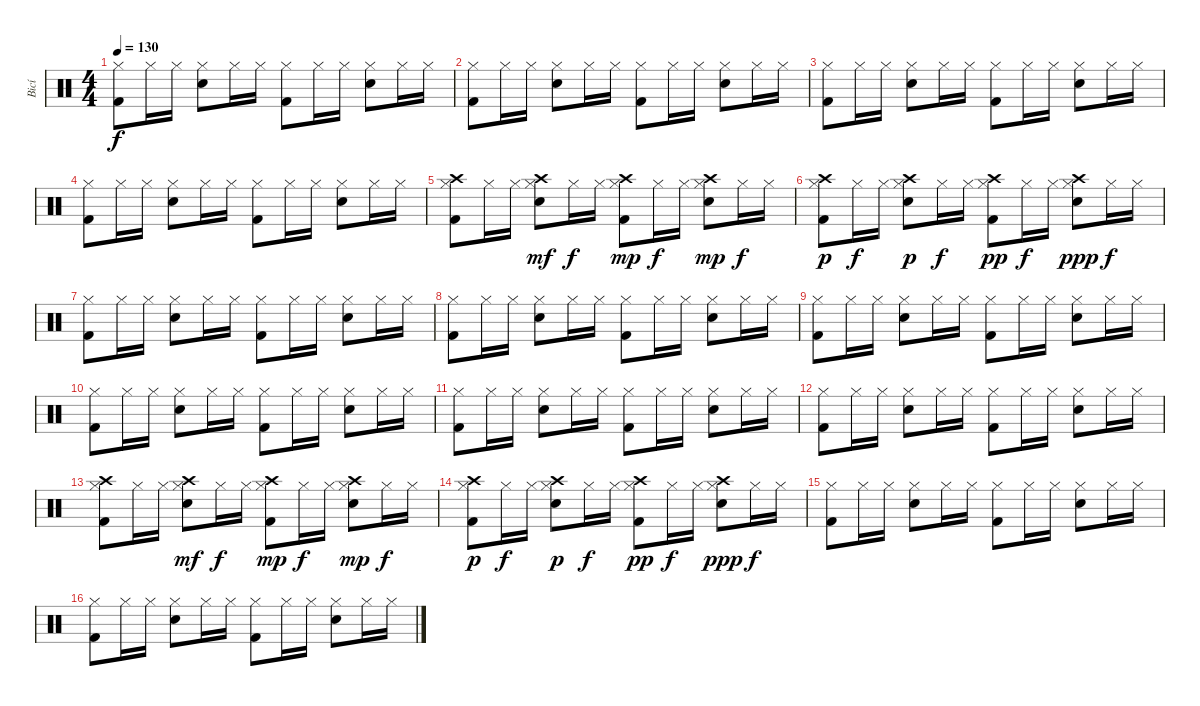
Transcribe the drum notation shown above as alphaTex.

\track ("Bicí" "Bicí") {instrument percussion}
\staff {score}
\articulation defaults
\ts (4 4)
\tempo 130
\clef neutral
\ks c
("Kick (hit) 2" "Hi-Hat (closed)").8{dy f} "Hi-Hat (closed)".16 "Hi-Hat (closed)".16 ("Hi-Hat (closed)" "Snare (hit) 2").8 "Hi-Hat (closed)".16 "Hi-Hat (closed)".16 ("Kick (hit) 2" "Hi-Hat (closed)").8 "Hi-Hat (closed)".16 "Hi-Hat (closed)".16 ("Hi-Hat (closed)" "Snare (hit) 2").8 "Hi-Hat (closed)".16 "Hi-Hat (closed)".16 |
("Kick (hit) 2" "Hi-Hat (closed)").8 "Hi-Hat (closed)".16 "Hi-Hat (closed)".16 ("Hi-Hat (closed)" "Snare (hit) 2").8 "Hi-Hat (closed)".16 "Hi-Hat (closed)".16 ("Kick (hit) 2" "Hi-Hat (closed)").8 "Hi-Hat (closed)".16 "Hi-Hat (closed)".16 ("Hi-Hat (closed)" "Snare (hit) 2").8 "Hi-Hat (closed)".16 "Hi-Hat (closed)".16 |
("Kick (hit) 2" "Hi-Hat (closed)").8 "Hi-Hat (closed)".16 "Hi-Hat (closed)".16 ("Hi-Hat (closed)" "Snare (hit) 2").8 "Hi-Hat (closed)".16 "Hi-Hat (closed)".16 ("Kick (hit) 2" "Hi-Hat (closed)").8 "Hi-Hat (closed)".16 "Hi-Hat (closed)".16 ("Hi-Hat (closed)" "Snare (hit) 2").8 "Hi-Hat (closed)".16 "Hi-Hat (closed)".16 |
("Kick (hit) 2" "Hi-Hat (closed)").8 "Hi-Hat (closed)".16 "Hi-Hat (closed)".16 ("Hi-Hat (closed)" "Snare (hit) 2").8 "Hi-Hat (closed)".16 "Hi-Hat (closed)".16 ("Kick (hit) 2" "Hi-Hat (closed)").8 "Hi-Hat (closed)".16 "Hi-Hat (closed)".16 ("Hi-Hat (closed)" "Snare (hit) 2").8 "Hi-Hat (closed)".16 "Hi-Hat (closed)".16 |
("Kick (hit) 2" "Hi-Hat (closed)" "Crash high (hit)").8 "Hi-Hat (closed)".16 "Hi-Hat (closed)".16 ("Hi-Hat (closed)" "Snare (hit) 2" "Crash high (hit)").8{dy mf} "Hi-Hat (closed)".16{dy f} "Hi-Hat (closed)".16 ("Kick (hit) 2" "Hi-Hat (closed)" "Crash high (hit)").8{dy mp} "Hi-Hat (closed)".16{dy f} "Hi-Hat (closed)".16 ("Hi-Hat (closed)" "Snare (hit) 2" "Crash high (hit)").8{dy mp} "Hi-Hat (closed)".16{dy f} "Hi-Hat (closed)".16 |
("Kick (hit) 2" "Hi-Hat (closed)" "Crash high (hit)").8{dy p} "Hi-Hat (closed)".16{dy f} "Hi-Hat (closed)".16 ("Hi-Hat (closed)" "Snare (hit) 2" "Crash high (hit)").8{dy p} "Hi-Hat (closed)".16{dy f} "Hi-Hat (closed)".16 ("Kick (hit) 2" "Hi-Hat (closed)" "Crash high (hit)").8{dy pp} "Hi-Hat (closed)".16{dy f} "Hi-Hat (closed)".16 ("Hi-Hat (closed)" "Snare (hit) 2" "Crash high (hit)").8{dy ppp} "Hi-Hat (closed)".16{dy f} "Hi-Hat (closed)".16 |
("Kick (hit) 2" "Hi-Hat (closed)").8 "Hi-Hat (closed)".16 "Hi-Hat (closed)".16 ("Hi-Hat (closed)" "Snare (hit) 2").8 "Hi-Hat (closed)".16 "Hi-Hat (closed)".16 ("Kick (hit) 2" "Hi-Hat (closed)").8 "Hi-Hat (closed)".16 "Hi-Hat (closed)".16 ("Hi-Hat (closed)" "Snare (hit) 2").8 "Hi-Hat (closed)".16 "Hi-Hat (closed)".16 |
("Kick (hit) 2" "Hi-Hat (closed)").8 "Hi-Hat (closed)".16 "Hi-Hat (closed)".16 ("Hi-Hat (closed)" "Snare (hit) 2").8 "Hi-Hat (closed)".16 "Hi-Hat (closed)".16 ("Kick (hit) 2" "Hi-Hat (closed)").8 "Hi-Hat (closed)".16 "Hi-Hat (closed)".16 ("Hi-Hat (closed)" "Snare (hit) 2").8 "Hi-Hat (closed)".16 "Hi-Hat (closed)".16 |
("Kick (hit) 2" "Hi-Hat (closed)").8 "Hi-Hat (closed)".16 "Hi-Hat (closed)".16 ("Hi-Hat (closed)" "Snare (hit) 2").8 "Hi-Hat (closed)".16 "Hi-Hat (closed)".16 ("Kick (hit) 2" "Hi-Hat (closed)").8 "Hi-Hat (closed)".16 "Hi-Hat (closed)".16 ("Hi-Hat (closed)" "Snare (hit) 2").8 "Hi-Hat (closed)".16 "Hi-Hat (closed)".16 |
("Kick (hit) 2" "Hi-Hat (closed)").8 "Hi-Hat (closed)".16 "Hi-Hat (closed)".16 ("Hi-Hat (closed)" "Snare (hit) 2").8 "Hi-Hat (closed)".16 "Hi-Hat (closed)".16 ("Kick (hit) 2" "Hi-Hat (closed)").8 "Hi-Hat (closed)".16 "Hi-Hat (closed)".16 ("Hi-Hat (closed)" "Snare (hit) 2").8 "Hi-Hat (closed)".16 "Hi-Hat (closed)".16 |
("Kick (hit) 2" "Hi-Hat (closed)").8 "Hi-Hat (closed)".16 "Hi-Hat (closed)".16 ("Hi-Hat (closed)" "Snare (hit) 2").8 "Hi-Hat (closed)".16 "Hi-Hat (closed)".16 ("Kick (hit) 2" "Hi-Hat (closed)").8 "Hi-Hat (closed)".16 "Hi-Hat (closed)".16 ("Hi-Hat (closed)" "Snare (hit) 2").8 "Hi-Hat (closed)".16 "Hi-Hat (closed)".16 |
("Kick (hit) 2" "Hi-Hat (closed)").8 "Hi-Hat (closed)".16 "Hi-Hat (closed)".16 ("Hi-Hat (closed)" "Snare (hit) 2").8 "Hi-Hat (closed)".16 "Hi-Hat (closed)".16 ("Kick (hit) 2" "Hi-Hat (closed)").8 "Hi-Hat (closed)".16 "Hi-Hat (closed)".16 ("Hi-Hat (closed)" "Snare (hit) 2").8 "Hi-Hat (closed)".16 "Hi-Hat (closed)".16 |
("Kick (hit) 2" "Hi-Hat (closed)" "Crash high (hit)").8 "Hi-Hat (closed)".16 "Hi-Hat (closed)".16 ("Hi-Hat (closed)" "Snare (hit) 2" "Crash high (hit)").8{dy mf} "Hi-Hat (closed)".16{dy f} "Hi-Hat (closed)".16 ("Kick (hit) 2" "Hi-Hat (closed)" "Crash high (hit)").8{dy mp} "Hi-Hat (closed)".16{dy f} "Hi-Hat (closed)".16 ("Hi-Hat (closed)" "Snare (hit) 2" "Crash high (hit)").8{dy mp} "Hi-Hat (closed)".16{dy f} "Hi-Hat (closed)".16 |
("Kick (hit) 2" "Hi-Hat (closed)" "Crash high (hit)").8{dy p} "Hi-Hat (closed)".16{dy f} "Hi-Hat (closed)".16 ("Hi-Hat (closed)" "Snare (hit) 2" "Crash high (hit)").8{dy p} "Hi-Hat (closed)".16{dy f} "Hi-Hat (closed)".16 ("Kick (hit) 2" "Hi-Hat (closed)" "Crash high (hit)").8{dy pp} "Hi-Hat (closed)".16{dy f} "Hi-Hat (closed)".16 ("Hi-Hat (closed)" "Snare (hit) 2" "Crash high (hit)").8{dy ppp} "Hi-Hat (closed)".16{dy f} "Hi-Hat (closed)".16 |
("Kick (hit) 2" "Hi-Hat (closed)").8 "Hi-Hat (closed)".16 "Hi-Hat (closed)".16 ("Hi-Hat (closed)" "Snare (hit) 2").8 "Hi-Hat (closed)".16 "Hi-Hat (closed)".16 ("Kick (hit) 2" "Hi-Hat (closed)").8 "Hi-Hat (closed)".16 "Hi-Hat (closed)".16 ("Hi-Hat (closed)" "Snare (hit) 2").8 "Hi-Hat (closed)".16 "Hi-Hat (closed)".16 |
("Kick (hit) 2" "Hi-Hat (closed)").8 "Hi-Hat (closed)".16 "Hi-Hat (closed)".16 ("Hi-Hat (closed)" "Snare (hit) 2").8 "Hi-Hat (closed)".16 "Hi-Hat (closed)".16 ("Kick (hit) 2" "Hi-Hat (closed)").8 "Hi-Hat (closed)".16 "Hi-Hat (closed)".16 ("Hi-Hat (closed)" "Snare (hit) 2").8 "Hi-Hat (closed)".16 "Hi-Hat (closed)".16
